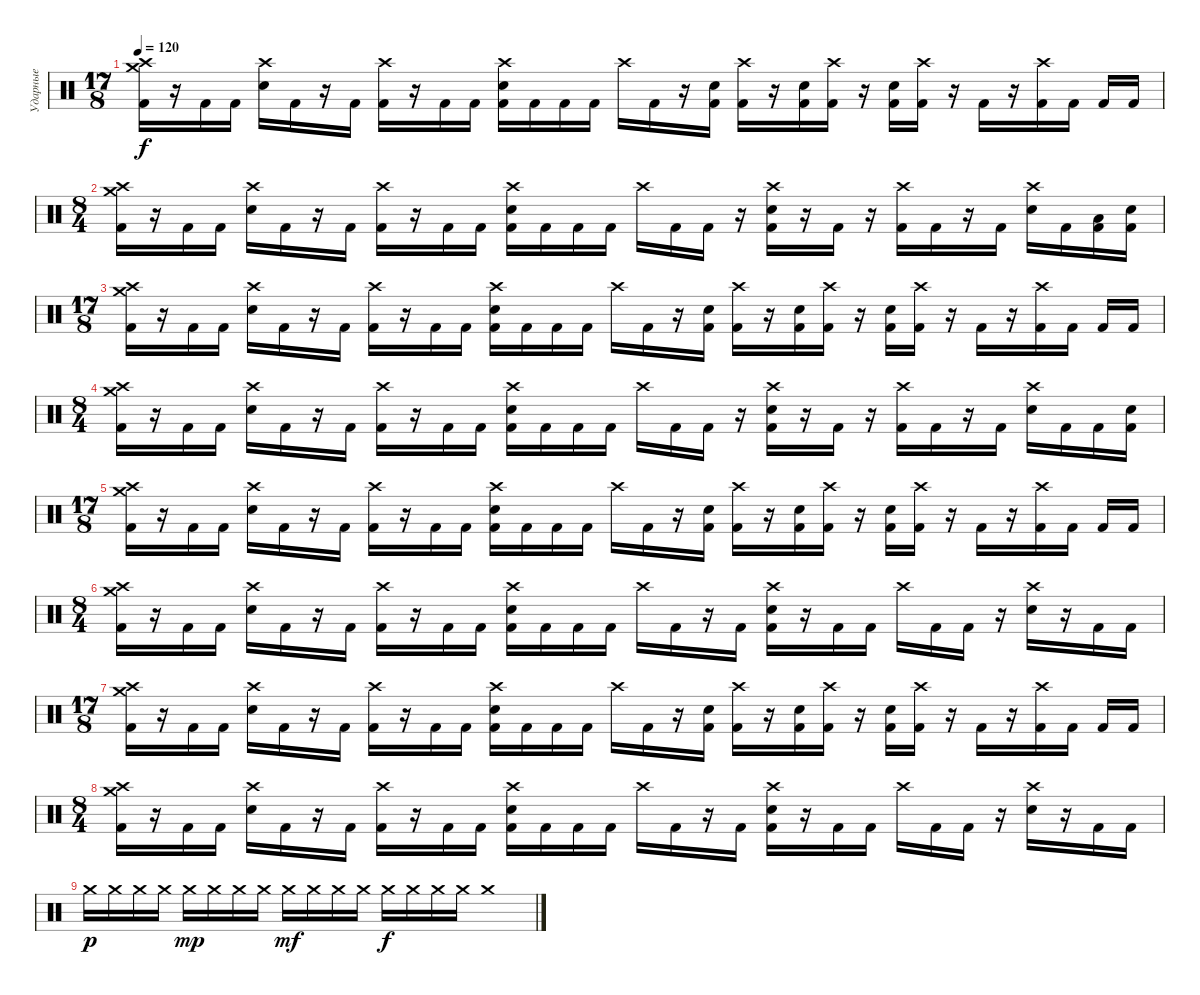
\track ("Ударные" "Ударные") {instrument percussion}
\staff {score}
\articulation defaults
\ts (17 8)
\tempo 120
\clef neutral
\ks c
("Crash high (hit)" "Crash medium (hit)" "Kick (hit) 2").16{dy f} r.16 "Kick (hit) 2".16 "Kick (hit) 2".16 ("Crash high (hit)" "Electric Snare (hit)").16 "Kick (hit) 2".16 r.16 "Kick (hit) 2".16 ("Crash high (hit)" "Kick (hit) 2").16 r.16 "Kick (hit) 2".16 "Kick (hit) 2".16 ("Crash high (hit)" "Electric Snare (hit)" "Kick (hit) 2").16 "Kick (hit) 2".16 "Kick (hit) 2".16 "Kick (hit) 2".16 "Crash high (hit)".16 "Kick (hit) 2".16 r.16 ("Electric Snare (hit)" "Kick (hit) 2").16 ("Crash high (hit)" "Kick (hit) 2").16 r.16 ("Electric Snare (hit)" "Kick (hit) 2").16 ("Crash high (hit)" "Kick (hit) 2").16 r.16 ("Electric Snare (hit)" "Kick (hit) 2").16 ("Crash high (hit)" "Kick (hit) 2").16 r.16 "Kick (hit) 2".16 r.16 ("Crash high (hit)" "Kick (hit) 2").16 "Kick (hit) 2".16 "Kick (hit) 2".16 "Kick (hit) 2".16 |
\ts (8 4)
("Crash high (hit)" "Crash medium (hit)" "Kick (hit) 2").16 r.16 "Kick (hit) 2".16 "Kick (hit) 2".16 ("Crash high (hit)" "Electric Snare (hit)").16 "Kick (hit) 2".16 r.16 "Kick (hit) 2".16 ("Crash high (hit)" "Kick (hit) 2").16 r.16 "Kick (hit) 2".16 "Kick (hit) 2".16 ("Crash high (hit)" "Electric Snare (hit)" "Kick (hit) 2").16 "Kick (hit) 2".16 "Kick (hit) 2".16 "Kick (hit) 2".16 "Crash high (hit)".16 "Kick (hit) 2".16 "Kick (hit) 2".16 r.16 ("Crash high (hit)" "Electric Snare (hit)" "Kick (hit) 2").16 r.16 "Kick (hit) 2".16 r.16 ("Crash high (hit)" "Kick (hit) 2").16 "Kick (hit) 2".16 r.16 "Kick (hit) 2".16 ("Crash high (hit)" "Electric Snare (hit)").16 "Kick (hit) 2".16 ("Low Tom (hit)" "Kick (hit) 2").16 ("Electric Snare (hit)" "Kick (hit) 2").16 |
\ts (17 8)
("Crash high (hit)" "Crash medium (hit)" "Kick (hit) 2").16 r.16 "Kick (hit) 2".16 "Kick (hit) 2".16 ("Crash high (hit)" "Electric Snare (hit)").16 "Kick (hit) 2".16 r.16 "Kick (hit) 2".16 ("Crash high (hit)" "Kick (hit) 2").16 r.16 "Kick (hit) 2".16 "Kick (hit) 2".16 ("Crash high (hit)" "Electric Snare (hit)" "Kick (hit) 2").16 "Kick (hit) 2".16 "Kick (hit) 2".16 "Kick (hit) 2".16 "Crash high (hit)".16 "Kick (hit) 2".16 r.16 ("Electric Snare (hit)" "Kick (hit) 2").16 ("Crash high (hit)" "Kick (hit) 2").16 r.16 ("Electric Snare (hit)" "Kick (hit) 2").16 ("Crash high (hit)" "Kick (hit) 2").16 r.16 ("Electric Snare (hit)" "Kick (hit) 2").16 ("Crash high (hit)" "Kick (hit) 2").16 r.16 "Kick (hit) 2".16 r.16 ("Crash high (hit)" "Kick (hit) 2").16 "Kick (hit) 2".16 "Kick (hit) 2".16 "Kick (hit) 2".16 |
\ts (8 4)
("Crash high (hit)" "Crash medium (hit)" "Kick (hit) 2").16 r.16 "Kick (hit) 2".16 "Kick (hit) 2".16 ("Crash high (hit)" "Electric Snare (hit)").16 "Kick (hit) 2".16 r.16 "Kick (hit) 2".16 ("Crash high (hit)" "Kick (hit) 2").16 r.16 "Kick (hit) 2".16 "Kick (hit) 2".16 ("Crash high (hit)" "Electric Snare (hit)" "Kick (hit) 2").16 "Kick (hit) 2".16 "Kick (hit) 2".16 "Kick (hit) 2".16 "Crash high (hit)".16 "Kick (hit) 2".16 "Kick (hit) 2".16 r.16 ("Crash high (hit)" "Electric Snare (hit)" "Kick (hit) 2").16 r.16 "Kick (hit) 2".16 r.16 ("Crash high (hit)" "Kick (hit) 2").16 "Kick (hit) 2".16 r.16 "Kick (hit) 2".16 ("Crash high (hit)" "Electric Snare (hit)").16 "Kick (hit) 2".16 "Kick (hit) 2".16 ("Electric Snare (hit)" "Kick (hit) 2").16 |
\ts (17 8)
("Crash high (hit)" "Crash medium (hit)" "Kick (hit) 2").16 r.16 "Kick (hit) 2".16 "Kick (hit) 2".16 ("Crash high (hit)" "Electric Snare (hit)").16 "Kick (hit) 2".16 r.16 "Kick (hit) 2".16 ("Crash high (hit)" "Kick (hit) 2").16 r.16 "Kick (hit) 2".16 "Kick (hit) 2".16 ("Crash high (hit)" "Electric Snare (hit)" "Kick (hit) 2").16 "Kick (hit) 2".16 "Kick (hit) 2".16 "Kick (hit) 2".16 "Crash high (hit)".16 "Kick (hit) 2".16 r.16 ("Electric Snare (hit)" "Kick (hit) 2").16 ("Crash high (hit)" "Kick (hit) 2").16 r.16 ("Electric Snare (hit)" "Kick (hit) 2").16 ("Crash high (hit)" "Kick (hit) 2").16 r.16 ("Electric Snare (hit)" "Kick (hit) 2").16 ("Crash high (hit)" "Kick (hit) 2").16 r.16 "Kick (hit) 2".16 r.16 ("Crash high (hit)" "Kick (hit) 2").16 "Kick (hit) 2".16 "Kick (hit) 2".16 "Kick (hit) 2".16 |
\ts (8 4)
("Crash high (hit)" "Crash medium (hit)" "Kick (hit) 2").16 r.16 "Kick (hit) 2".16 "Kick (hit) 2".16 ("Crash high (hit)" "Electric Snare (hit)").16 "Kick (hit) 2".16 r.16 "Kick (hit) 2".16 ("Crash high (hit)" "Kick (hit) 2").16 r.16 "Kick (hit) 2".16 "Kick (hit) 2".16 ("Crash high (hit)" "Electric Snare (hit)" "Kick (hit) 2").16 "Kick (hit) 2".16 "Kick (hit) 2".16 "Kick (hit) 2".16 "Crash high (hit)".16 "Kick (hit) 2".16 r.16 "Kick (hit) 2".16 ("Crash high (hit)" "Electric Snare (hit)" "Kick (hit) 2").16 r.16 "Kick (hit) 2".16 "Kick (hit) 2".16 "Crash high (hit)".16 "Kick (hit) 2".16 "Kick (hit) 2".16 r.16 ("Crash high (hit)" "Electric Snare (hit)").16 r.16 "Kick (hit) 2".16 "Kick (hit) 2".16 |
\ts (17 8)
("Crash high (hit)" "Crash medium (hit)" "Kick (hit) 2").16 r.16 "Kick (hit) 2".16 "Kick (hit) 2".16 ("Crash high (hit)" "Electric Snare (hit)").16 "Kick (hit) 2".16 r.16 "Kick (hit) 2".16 ("Crash high (hit)" "Kick (hit) 2").16 r.16 "Kick (hit) 2".16 "Kick (hit) 2".16 ("Crash high (hit)" "Electric Snare (hit)" "Kick (hit) 2").16 "Kick (hit) 2".16 "Kick (hit) 2".16 "Kick (hit) 2".16 "Crash high (hit)".16 "Kick (hit) 2".16 r.16 ("Electric Snare (hit)" "Kick (hit) 2").16 ("Crash high (hit)" "Kick (hit) 2").16 r.16 ("Electric Snare (hit)" "Kick (hit) 2").16 ("Crash high (hit)" "Kick (hit) 2").16 r.16 ("Electric Snare (hit)" "Kick (hit) 2").16 ("Crash high (hit)" "Kick (hit) 2").16 r.16 "Kick (hit) 2".16 r.16 ("Crash high (hit)" "Kick (hit) 2").16 "Kick (hit) 2".16 "Kick (hit) 2".16 "Kick (hit) 2".16 |
\ts (8 4)
("Crash high (hit)" "Crash medium (hit)" "Kick (hit) 2").16 r.16 "Kick (hit) 2".16 "Kick (hit) 2".16 ("Crash high (hit)" "Electric Snare (hit)").16 "Kick (hit) 2".16 r.16 "Kick (hit) 2".16 ("Crash high (hit)" "Kick (hit) 2").16 r.16 "Kick (hit) 2".16 "Kick (hit) 2".16 ("Crash high (hit)" "Electric Snare (hit)" "Kick (hit) 2").16 "Kick (hit) 2".16 "Kick (hit) 2".16 "Kick (hit) 2".16 "Crash high (hit)".16 "Kick (hit) 2".16 r.16 "Kick (hit) 2".16 ("Crash high (hit)" "Electric Snare (hit)" "Kick (hit) 2").16 r.16 "Kick (hit) 2".16 "Kick (hit) 2".16 "Crash high (hit)".16 "Kick (hit) 2".16 "Kick (hit) 2".16 r.16 ("Crash high (hit)" "Electric Snare (hit)").16 r.16 "Kick (hit) 2".16 "Kick (hit) 2".16 |
"Crash medium (hit)".16{dy p} "Crash medium (hit)".16 "Crash medium (hit)".16 "Crash medium (hit)".16 "Crash medium (hit)".16{dy mp} "Crash medium (hit)".16 "Crash medium (hit)".16 "Crash medium (hit)".16 "Crash medium (hit)".16{dy mf} "Crash medium (hit)".16 "Crash medium (hit)".16 "Crash medium (hit)".16 "Crash medium (hit)".16{dy f} "Crash medium (hit)".16 "Crash medium (hit)".16 "Crash medium (hit)".16 "Crash medium (hit)".1
